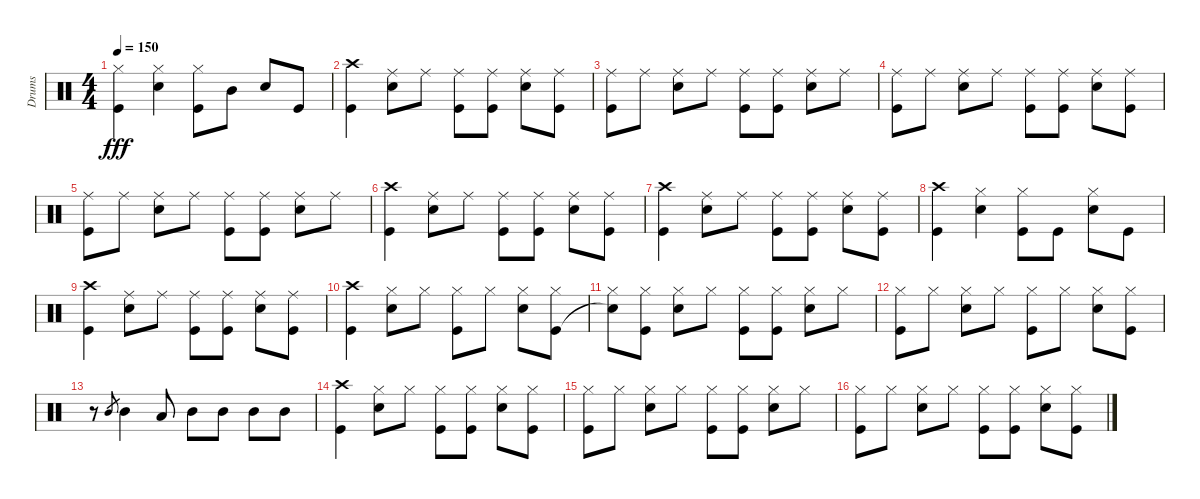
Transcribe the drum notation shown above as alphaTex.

\track ("Drums" "Drums") {instrument percussion}
\staff {score}
\articulation defaults
\ts (4 4)
\tempo 150
\clef neutral
\ks c
("Hi-Hat (closed)" "Kick (hit)").4{dy fff} ("Hi-Hat (closed)" "Snare (hit) 2").4 ("Hi-Hat (closed)" "Kick (hit)").8 "Mid Tom (hit)".8 "Snare (hit) 2".8 "Kick (hit)".8 |
("Crash high (hit)" "Kick (hit)").4 ("Ride (middle)" "Snare (hit) 2").8 "Ride (middle)".8 ("Ride (middle)" "Kick (hit)").8 ("Ride (middle)" "Kick (hit)").8 ("Ride (middle)" "Snare (hit) 2").8 ("Ride (middle)" "Kick (hit)").8 |
("Ride (middle)" "Kick (hit)").8 "Ride (middle)".8 ("Ride (middle)" "Snare (hit) 2").8 "Ride (middle)".8 ("Ride (middle)" "Kick (hit)").8 ("Ride (middle)" "Kick (hit)").8 ("Ride (middle)" "Snare (hit) 2").8 "Ride (middle)".8 |
("Ride (middle)" "Kick (hit)").8 "Ride (middle)".8 ("Ride (middle)" "Snare (hit) 2").8 "Ride (middle)".8 ("Ride (middle)" "Kick (hit)").8 ("Ride (middle)" "Kick (hit)").8 ("Ride (middle)" "Snare (hit) 2").8 ("Ride (middle)" "Kick (hit)").8 |
("Ride (middle)" "Kick (hit)").8 "Ride (middle)".8 ("Ride (middle)" "Snare (hit) 2").8 "Ride (middle)".8 ("Ride (middle)" "Kick (hit)").8 ("Ride (middle)" "Kick (hit)").8 ("Ride (middle)" "Snare (hit) 2").8 "Ride (middle)".8 |
("Crash high (hit)" "Kick (hit)").4 ("Ride (middle)" "Snare (hit) 2").8 "Ride (middle)".8 ("Ride (middle)" "Kick (hit)").8 ("Ride (middle)" "Kick (hit)").8 ("Ride (middle)" "Snare (hit) 2").8 ("Ride (middle)" "Kick (hit)").8 |
("Crash high (hit)" "Kick (hit)").4 ("Ride (middle)" "Snare (hit) 2").8 "Ride (middle)".8 ("Ride (middle)" "Kick (hit)").8 ("Ride (middle)" "Kick (hit)").8 ("Ride (middle)" "Snare (hit) 2").8 ("Ride (middle)" "Kick (hit)").8 |
("Crash high (hit)" "Kick (hit)").4 ("Hi-Hat (closed)" "Snare (hit) 2").4 ("Hi-Hat (closed)" "Kick (hit)").8 "Kick (hit)".8 ("Hi-Hat (closed)" "Snare (hit) 2").8 "Kick (hit)".8 |
("Crash high (hit)" "Kick (hit)").4 ("Ride (middle)" "Snare (hit) 2").8 "Ride (middle)".8 ("Ride (middle)" "Kick (hit)").8 ("Ride (middle)" "Kick (hit)").8 ("Ride (middle)" "Snare (hit) 2").8 ("Ride (middle)" "Kick (hit)").8 |
("Crash high (hit)" "Kick (hit)").4 ("Hi-Hat (closed)" "Snare (hit) 2").8 "Hi-Hat (closed)".8 ("Hi-Hat (closed)" "Kick (hit)").8 "Hi-Hat (closed)".8 ("Hi-Hat (closed)" "Snare (hit) 2").8 ("Hi-Hat (closed)" "Kick (hit)").8 |
("Hi-Hat (closed)" "Snare (hit)"{t}).8 ("Hi-Hat (closed)" "Kick (hit)").8 ("Hi-Hat (closed)" "Snare (hit) 2").8 "Hi-Hat (closed)".8 ("Hi-Hat (closed)" "Kick (hit)").8 ("Hi-Hat (closed)" "Kick (hit)").8 ("Hi-Hat (closed)" "Snare (hit) 2").8 "Hi-Hat (closed)".8 |
("Hi-Hat (closed)" "Kick (hit)").8 "Hi-Hat (closed)".8 ("Hi-Hat (closed)" "Snare (hit) 2").8 "Hi-Hat (closed)".8 ("Hi-Hat (closed)" "Kick (hit)").8 "Hi-Hat (closed)".8 ("Hi-Hat (closed)" "Snare (hit) 2").8 ("Hi-Hat (closed)" "Kick (hit)").8 |
r.8 "Mid Tom (hit)".8{gr} "Mid Tom (hit)".4 "Low Tom (hit)".8 "Mid Tom (hit)".8 "Mid Tom (hit)".8 "Mid Tom (hit)".8 "Mid Tom (hit)".8 |
("Crash high (hit)" "Kick (hit)").4 ("Hi-Hat (closed)" "Snare (hit) 2").8 "Hi-Hat (closed)".8 ("Hi-Hat (closed)" "Kick (hit)").8 ("Hi-Hat (closed)" "Kick (hit)").8 ("Hi-Hat (closed)" "Snare (hit) 2").8 ("Hi-Hat (closed)" "Kick (hit)").8 |
("Hi-Hat (closed)" "Kick (hit)").8 "Hi-Hat (closed)".8 ("Hi-Hat (closed)" "Snare (hit) 2").8 "Hi-Hat (closed)".8 ("Hi-Hat (closed)" "Kick (hit)").8 ("Hi-Hat (closed)" "Kick (hit)").8 ("Hi-Hat (closed)" "Snare (hit) 2").8 "Hi-Hat (closed)".8 |
("Hi-Hat (closed)" "Kick (hit)").8 "Hi-Hat (closed)".8 ("Hi-Hat (closed)" "Snare (hit) 2").8 "Hi-Hat (closed)".8 ("Hi-Hat (closed)" "Kick (hit)").8 ("Hi-Hat (closed)" "Kick (hit)").8 ("Hi-Hat (closed)" "Snare (hit) 2").8 ("Hi-Hat (closed)" "Kick (hit)").8
